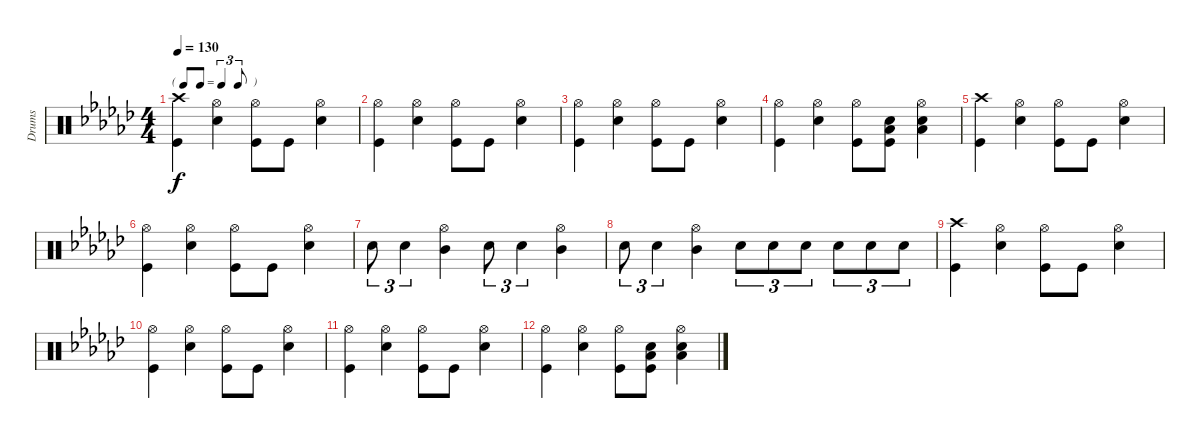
\track ("Drums" "Drums") {instrument percussion}
\staff {score}
\articulation defaults
\ts (4 4)
\tf triplet8th
\tempo 130
\clef neutral
\ks gb
("Crash high (hit)" "Kick (hit)").4{dy f} ("Hi-Hat (open)" "Snare (hit) 2").4 ("Hi-Hat (open)" "Kick (hit)").8 "Kick (hit)".8 ("Hi-Hat (open)" "Snare (hit) 2").4 |
("Hi-Hat (open)" "Kick (hit)").4 ("Hi-Hat (open)" "Snare (hit) 2").4 ("Hi-Hat (open)" "Kick (hit)").8 "Kick (hit)".8 ("Hi-Hat (open)" "Snare (hit) 2").4 |
("Hi-Hat (open)" "Kick (hit)").4 ("Hi-Hat (open)" "Snare (hit) 2").4 ("Hi-Hat (open)" "Kick (hit)").8 "Kick (hit)".8 ("Hi-Hat (open)" "Snare (hit) 2").4 |
("Hi-Hat (open)" "Kick (hit)").4 ("Hi-Hat (open)" "Snare (hit) 2").4 ("Hi-Hat (open)" "Kick (hit)").8 ("Low Tom (hit)" "Snare (hit) 2" "Kick (hit)").8 ("Hi-Hat (open)" "Low Tom (hit)" "Snare (hit) 2").4 |
("Crash high (hit)" "Kick (hit)").4 ("Hi-Hat (open)" "Snare (hit) 2").4 ("Hi-Hat (open)" "Kick (hit)").8 "Kick (hit)".8 ("Hi-Hat (open)" "Snare (hit) 2").4 |
("Hi-Hat (open)" "Kick (hit)").4 ("Hi-Hat (open)" "Snare (hit) 2").4 ("Hi-Hat (open)" "Kick (hit)").8 "Kick (hit)".8 ("Hi-Hat (open)" "Snare (hit) 2").4 |
"Snare (hit) 2".8{tu (3 2)} "Snare (hit) 2".4{tu (3 2)} ("Hi-Hat (open)" "Mid Tom (hit)").4 "Snare (hit) 2".8{tu (3 2)} "Snare (hit) 2".4{tu (3 2)} ("Hi-Hat (open)" "Mid Tom (hit)").4 |
"Snare (hit) 2".8{tu (3 2)} "Snare (hit) 2".4{tu (3 2)} ("Hi-Hat (open)" "Mid Tom (hit)").4 "Snare (hit) 2".8{tu (3 2)} "Snare (hit) 2".8{tu (3 2)} "Snare (hit) 2".8{tu (3 2)} "Snare (hit) 2".8{tu (3 2)} "Snare (hit) 2".8{tu (3 2)} "Snare (hit) 2".8{tu (3 2)} |
("Crash high (hit)" "Kick (hit)").4 ("Hi-Hat (open)" "Snare (hit) 2").4 ("Hi-Hat (open)" "Kick (hit)").8 "Kick (hit)".8 ("Hi-Hat (open)" "Snare (hit) 2").4 |
("Hi-Hat (open)" "Kick (hit)").4 ("Hi-Hat (open)" "Snare (hit) 2").4 ("Hi-Hat (open)" "Kick (hit)").8 "Kick (hit)".8 ("Hi-Hat (open)" "Snare (hit) 2").4 |
("Hi-Hat (open)" "Kick (hit)").4 ("Hi-Hat (open)" "Snare (hit) 2").4 ("Hi-Hat (open)" "Kick (hit)").8 "Kick (hit)".8 ("Hi-Hat (open)" "Snare (hit) 2").4 |
("Hi-Hat (open)" "Kick (hit)").4 ("Hi-Hat (open)" "Snare (hit) 2").4 ("Hi-Hat (open)" "Kick (hit)").8 ("Low Tom (hit)" "Snare (hit) 2" "Kick (hit)").8 ("Hi-Hat (open)" "Low Tom (hit)" "Snare (hit) 2").4
